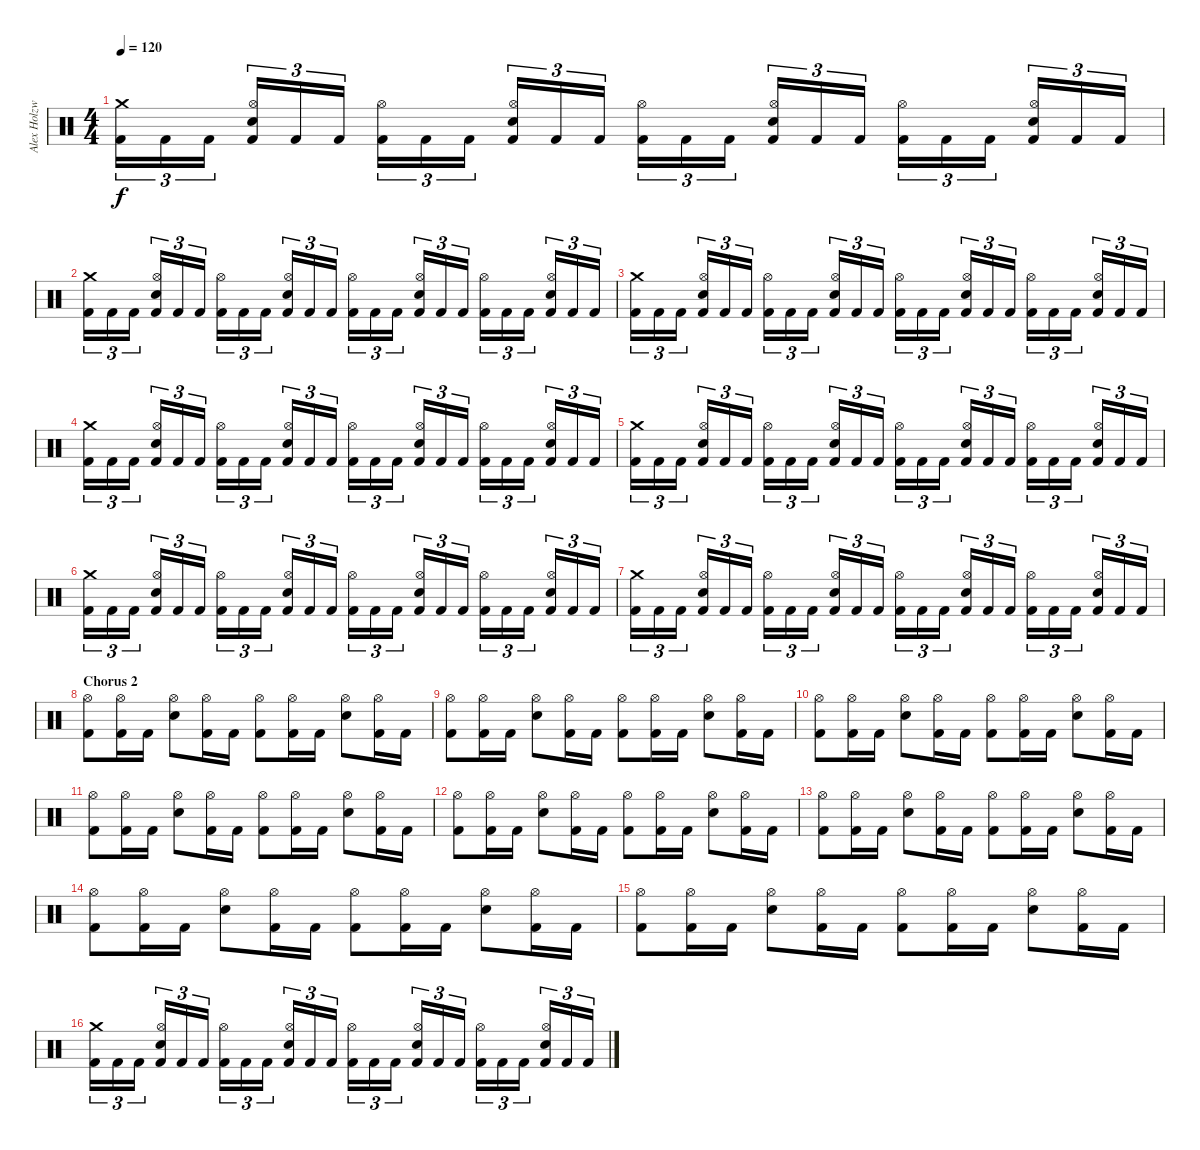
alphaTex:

\track ("Alex Holzwarth - Drums" "Alex Holzw") {instrument percussion}
\staff {score}
\articulation defaults
\ts (4 4)
\tempo 120
\clef neutral
\ks c
("Crash medium (hit)" "Kick (hit) 2").16{tu (3 2) dy f} "Kick (hit) 2".16{tu (3 2)} "Kick (hit) 2".16{tu (3 2)} ("Hi-Hat (open)" "Electric Snare (hit)" "Kick (hit) 2").16{tu (3 2)} "Kick (hit) 2".16{tu (3 2)} "Kick (hit) 2".16{tu (3 2)} ("Hi-Hat (open)" "Kick (hit) 2").16{tu (3 2)} "Kick (hit) 2".16{tu (3 2)} "Kick (hit) 2".16{tu (3 2)} ("Hi-Hat (open)" "Electric Snare (hit)" "Kick (hit) 2").16{tu (3 2)} "Kick (hit) 2".16{tu (3 2)} "Kick (hit) 2".16{tu (3 2)} ("Hi-Hat (open)" "Kick (hit) 2").16{tu (3 2)} "Kick (hit) 2".16{tu (3 2)} "Kick (hit) 2".16{tu (3 2)} ("Hi-Hat (open)" "Electric Snare (hit)" "Kick (hit) 2").16{tu (3 2)} "Kick (hit) 2".16{tu (3 2)} "Kick (hit) 2".16{tu (3 2)} ("Hi-Hat (open)" "Kick (hit) 2").16{tu (3 2)} "Kick (hit) 2".16{tu (3 2)} "Kick (hit) 2".16{tu (3 2)} ("Hi-Hat (open)" "Electric Snare (hit)" "Kick (hit) 2").16{tu (3 2)} "Kick (hit) 2".16{tu (3 2)} "Kick (hit) 2".16{tu (3 2)} |
("Crash medium (hit)" "Kick (hit) 2").16{tu (3 2)} "Kick (hit) 2".16{tu (3 2)} "Kick (hit) 2".16{tu (3 2)} ("Hi-Hat (open)" "Electric Snare (hit)" "Kick (hit) 2").16{tu (3 2)} "Kick (hit) 2".16{tu (3 2)} "Kick (hit) 2".16{tu (3 2)} ("Hi-Hat (open)" "Kick (hit) 2").16{tu (3 2)} "Kick (hit) 2".16{tu (3 2)} "Kick (hit) 2".16{tu (3 2)} ("Hi-Hat (open)" "Electric Snare (hit)" "Kick (hit) 2").16{tu (3 2)} "Kick (hit) 2".16{tu (3 2)} "Kick (hit) 2".16{tu (3 2)} ("Hi-Hat (open)" "Kick (hit) 2").16{tu (3 2)} "Kick (hit) 2".16{tu (3 2)} "Kick (hit) 2".16{tu (3 2)} ("Hi-Hat (open)" "Electric Snare (hit)" "Kick (hit) 2").16{tu (3 2)} "Kick (hit) 2".16{tu (3 2)} "Kick (hit) 2".16{tu (3 2)} ("Hi-Hat (open)" "Kick (hit) 2").16{tu (3 2)} "Kick (hit) 2".16{tu (3 2)} "Kick (hit) 2".16{tu (3 2)} ("Hi-Hat (open)" "Electric Snare (hit)" "Kick (hit) 2").16{tu (3 2)} "Kick (hit) 2".16{tu (3 2)} "Kick (hit) 2".16{tu (3 2)} |
("Crash medium (hit)" "Kick (hit) 2").16{tu (3 2)} "Kick (hit) 2".16{tu (3 2)} "Kick (hit) 2".16{tu (3 2)} ("Hi-Hat (open)" "Electric Snare (hit)" "Kick (hit) 2").16{tu (3 2)} "Kick (hit) 2".16{tu (3 2)} "Kick (hit) 2".16{tu (3 2)} ("Hi-Hat (open)" "Kick (hit) 2").16{tu (3 2)} "Kick (hit) 2".16{tu (3 2)} "Kick (hit) 2".16{tu (3 2)} ("Hi-Hat (open)" "Electric Snare (hit)" "Kick (hit) 2").16{tu (3 2)} "Kick (hit) 2".16{tu (3 2)} "Kick (hit) 2".16{tu (3 2)} ("Hi-Hat (open)" "Kick (hit) 2").16{tu (3 2)} "Kick (hit) 2".16{tu (3 2)} "Kick (hit) 2".16{tu (3 2)} ("Hi-Hat (open)" "Electric Snare (hit)" "Kick (hit) 2").16{tu (3 2)} "Kick (hit) 2".16{tu (3 2)} "Kick (hit) 2".16{tu (3 2)} ("Hi-Hat (open)" "Kick (hit) 2").16{tu (3 2)} "Kick (hit) 2".16{tu (3 2)} "Kick (hit) 2".16{tu (3 2)} ("Hi-Hat (open)" "Electric Snare (hit)" "Kick (hit) 2").16{tu (3 2)} "Kick (hit) 2".16{tu (3 2)} "Kick (hit) 2".16{tu (3 2)} |
("Crash medium (hit)" "Kick (hit) 2").16{tu (3 2)} "Kick (hit) 2".16{tu (3 2)} "Kick (hit) 2".16{tu (3 2)} ("Hi-Hat (open)" "Electric Snare (hit)" "Kick (hit) 2").16{tu (3 2)} "Kick (hit) 2".16{tu (3 2)} "Kick (hit) 2".16{tu (3 2)} ("Hi-Hat (open)" "Kick (hit) 2").16{tu (3 2)} "Kick (hit) 2".16{tu (3 2)} "Kick (hit) 2".16{tu (3 2)} ("Hi-Hat (open)" "Electric Snare (hit)" "Kick (hit) 2").16{tu (3 2)} "Kick (hit) 2".16{tu (3 2)} "Kick (hit) 2".16{tu (3 2)} ("Hi-Hat (open)" "Kick (hit) 2").16{tu (3 2)} "Kick (hit) 2".16{tu (3 2)} "Kick (hit) 2".16{tu (3 2)} ("Hi-Hat (open)" "Electric Snare (hit)" "Kick (hit) 2").16{tu (3 2)} "Kick (hit) 2".16{tu (3 2)} "Kick (hit) 2".16{tu (3 2)} ("Hi-Hat (open)" "Kick (hit) 2").16{tu (3 2)} "Kick (hit) 2".16{tu (3 2)} "Kick (hit) 2".16{tu (3 2)} ("Hi-Hat (open)" "Electric Snare (hit)" "Kick (hit) 2").16{tu (3 2)} "Kick (hit) 2".16{tu (3 2)} "Kick (hit) 2".16{tu (3 2)} |
("Crash medium (hit)" "Kick (hit) 2").16{tu (3 2)} "Kick (hit) 2".16{tu (3 2)} "Kick (hit) 2".16{tu (3 2)} ("Hi-Hat (open)" "Electric Snare (hit)" "Kick (hit) 2").16{tu (3 2)} "Kick (hit) 2".16{tu (3 2)} "Kick (hit) 2".16{tu (3 2)} ("Hi-Hat (open)" "Kick (hit) 2").16{tu (3 2)} "Kick (hit) 2".16{tu (3 2)} "Kick (hit) 2".16{tu (3 2)} ("Hi-Hat (open)" "Electric Snare (hit)" "Kick (hit) 2").16{tu (3 2)} "Kick (hit) 2".16{tu (3 2)} "Kick (hit) 2".16{tu (3 2)} ("Hi-Hat (open)" "Kick (hit) 2").16{tu (3 2)} "Kick (hit) 2".16{tu (3 2)} "Kick (hit) 2".16{tu (3 2)} ("Hi-Hat (open)" "Electric Snare (hit)" "Kick (hit) 2").16{tu (3 2)} "Kick (hit) 2".16{tu (3 2)} "Kick (hit) 2".16{tu (3 2)} ("Hi-Hat (open)" "Kick (hit) 2").16{tu (3 2)} "Kick (hit) 2".16{tu (3 2)} "Kick (hit) 2".16{tu (3 2)} ("Hi-Hat (open)" "Electric Snare (hit)" "Kick (hit) 2").16{tu (3 2)} "Kick (hit) 2".16{tu (3 2)} "Kick (hit) 2".16{tu (3 2)} |
("Crash medium (hit)" "Kick (hit) 2").16{tu (3 2)} "Kick (hit) 2".16{tu (3 2)} "Kick (hit) 2".16{tu (3 2)} ("Hi-Hat (open)" "Electric Snare (hit)" "Kick (hit) 2").16{tu (3 2)} "Kick (hit) 2".16{tu (3 2)} "Kick (hit) 2".16{tu (3 2)} ("Hi-Hat (open)" "Kick (hit) 2").16{tu (3 2)} "Kick (hit) 2".16{tu (3 2)} "Kick (hit) 2".16{tu (3 2)} ("Hi-Hat (open)" "Electric Snare (hit)" "Kick (hit) 2").16{tu (3 2)} "Kick (hit) 2".16{tu (3 2)} "Kick (hit) 2".16{tu (3 2)} ("Hi-Hat (open)" "Kick (hit) 2").16{tu (3 2)} "Kick (hit) 2".16{tu (3 2)} "Kick (hit) 2".16{tu (3 2)} ("Hi-Hat (open)" "Electric Snare (hit)" "Kick (hit) 2").16{tu (3 2)} "Kick (hit) 2".16{tu (3 2)} "Kick (hit) 2".16{tu (3 2)} ("Hi-Hat (open)" "Kick (hit) 2").16{tu (3 2)} "Kick (hit) 2".16{tu (3 2)} "Kick (hit) 2".16{tu (3 2)} ("Hi-Hat (open)" "Electric Snare (hit)" "Kick (hit) 2").16{tu (3 2)} "Kick (hit) 2".16{tu (3 2)} "Kick (hit) 2".16{tu (3 2)} |
("Crash medium (hit)" "Kick (hit) 2").16{tu (3 2)} "Kick (hit) 2".16{tu (3 2)} "Kick (hit) 2".16{tu (3 2)} ("Hi-Hat (open)" "Electric Snare (hit)" "Kick (hit) 2").16{tu (3 2)} "Kick (hit) 2".16{tu (3 2)} "Kick (hit) 2".16{tu (3 2)} ("Hi-Hat (open)" "Kick (hit) 2").16{tu (3 2)} "Kick (hit) 2".16{tu (3 2)} "Kick (hit) 2".16{tu (3 2)} ("Hi-Hat (open)" "Electric Snare (hit)" "Kick (hit) 2").16{tu (3 2)} "Kick (hit) 2".16{tu (3 2)} "Kick (hit) 2".16{tu (3 2)} ("Hi-Hat (open)" "Kick (hit) 2").16{tu (3 2)} "Kick (hit) 2".16{tu (3 2)} "Kick (hit) 2".16{tu (3 2)} ("Hi-Hat (open)" "Electric Snare (hit)" "Kick (hit) 2").16{tu (3 2)} "Kick (hit) 2".16{tu (3 2)} "Kick (hit) 2".16{tu (3 2)} ("Hi-Hat (open)" "Kick (hit) 2").16{tu (3 2)} "Kick (hit) 2".16{tu (3 2)} "Kick (hit) 2".16{tu (3 2)} ("Hi-Hat (open)" "Electric Snare (hit)" "Kick (hit) 2").16{tu (3 2)} "Kick (hit) 2".16{tu (3 2)} "Kick (hit) 2".16{tu (3 2)} |
\section ("" "Chorus 2")
("Hi-Hat (open)" "Kick (hit) 2").8 ("Hi-Hat (open)" "Kick (hit) 2").16 "Kick (hit) 2".16 ("Hi-Hat (open)" "Electric Snare (hit)").8 ("Hi-Hat (open)" "Kick (hit) 2").16 "Kick (hit) 2".16 ("Hi-Hat (open)" "Kick (hit) 2").8 ("Hi-Hat (open)" "Kick (hit) 2").16 "Kick (hit) 2".16 ("Hi-Hat (open)" "Electric Snare (hit)").8 ("Hi-Hat (open)" "Kick (hit) 2").16 "Kick (hit) 2".16 |
("Hi-Hat (open)" "Kick (hit) 2").8 ("Hi-Hat (open)" "Kick (hit) 2").16 "Kick (hit) 2".16 ("Hi-Hat (open)" "Electric Snare (hit)").8 ("Hi-Hat (open)" "Kick (hit) 2").16 "Kick (hit) 2".16 ("Hi-Hat (open)" "Kick (hit) 2").8 ("Hi-Hat (open)" "Kick (hit) 2").16 "Kick (hit) 2".16 ("Hi-Hat (open)" "Electric Snare (hit)").8 ("Hi-Hat (open)" "Kick (hit) 2").16 "Kick (hit) 2".16 |
("Hi-Hat (open)" "Kick (hit) 2").8 ("Hi-Hat (open)" "Kick (hit) 2").16 "Kick (hit) 2".16 ("Hi-Hat (open)" "Electric Snare (hit)").8 ("Hi-Hat (open)" "Kick (hit) 2").16 "Kick (hit) 2".16 ("Hi-Hat (open)" "Kick (hit) 2").8 ("Hi-Hat (open)" "Kick (hit) 2").16 "Kick (hit) 2".16 ("Hi-Hat (open)" "Electric Snare (hit)").8 ("Hi-Hat (open)" "Kick (hit) 2").16 "Kick (hit) 2".16 |
("Hi-Hat (open)" "Kick (hit) 2").8 ("Hi-Hat (open)" "Kick (hit) 2").16 "Kick (hit) 2".16 ("Hi-Hat (open)" "Electric Snare (hit)").8 ("Hi-Hat (open)" "Kick (hit) 2").16 "Kick (hit) 2".16 ("Hi-Hat (open)" "Kick (hit) 2").8 ("Hi-Hat (open)" "Kick (hit) 2").16 "Kick (hit) 2".16 ("Hi-Hat (open)" "Electric Snare (hit)").8 ("Hi-Hat (open)" "Kick (hit) 2").16 "Kick (hit) 2".16 |
("Hi-Hat (open)" "Kick (hit) 2").8 ("Hi-Hat (open)" "Kick (hit) 2").16 "Kick (hit) 2".16 ("Hi-Hat (open)" "Electric Snare (hit)").8 ("Hi-Hat (open)" "Kick (hit) 2").16 "Kick (hit) 2".16 ("Hi-Hat (open)" "Kick (hit) 2").8 ("Hi-Hat (open)" "Kick (hit) 2").16 "Kick (hit) 2".16 ("Hi-Hat (open)" "Electric Snare (hit)").8 ("Hi-Hat (open)" "Kick (hit) 2").16 "Kick (hit) 2".16 |
("Hi-Hat (open)" "Kick (hit) 2").8 ("Hi-Hat (open)" "Kick (hit) 2").16 "Kick (hit) 2".16 ("Hi-Hat (open)" "Electric Snare (hit)").8 ("Hi-Hat (open)" "Kick (hit) 2").16 "Kick (hit) 2".16 ("Hi-Hat (open)" "Kick (hit) 2").8 ("Hi-Hat (open)" "Kick (hit) 2").16 "Kick (hit) 2".16 ("Hi-Hat (open)" "Electric Snare (hit)").8 ("Hi-Hat (open)" "Kick (hit) 2").16 "Kick (hit) 2".16 |
("Hi-Hat (open)" "Kick (hit) 2").8 ("Hi-Hat (open)" "Kick (hit) 2").16 "Kick (hit) 2".16 ("Hi-Hat (open)" "Electric Snare (hit)").8 ("Hi-Hat (open)" "Kick (hit) 2").16 "Kick (hit) 2".16 ("Hi-Hat (open)" "Kick (hit) 2").8 ("Hi-Hat (open)" "Kick (hit) 2").16 "Kick (hit) 2".16 ("Hi-Hat (open)" "Electric Snare (hit)").8 ("Hi-Hat (open)" "Kick (hit) 2").16 "Kick (hit) 2".16 |
("Hi-Hat (open)" "Kick (hit) 2").8 ("Hi-Hat (open)" "Kick (hit) 2").16 "Kick (hit) 2".16 ("Hi-Hat (open)" "Electric Snare (hit)").8 ("Hi-Hat (open)" "Kick (hit) 2").16 "Kick (hit) 2".16 ("Hi-Hat (open)" "Kick (hit) 2").8 ("Hi-Hat (open)" "Kick (hit) 2").16 "Kick (hit) 2".16 ("Hi-Hat (open)" "Electric Snare (hit)").8 ("Hi-Hat (open)" "Kick (hit) 2").16 "Kick (hit) 2".16 |
("Crash medium (hit)" "Kick (hit) 2").16{tu (3 2)} "Kick (hit) 2".16{tu (3 2)} "Kick (hit) 2".16{tu (3 2)} ("Hi-Hat (open)" "Electric Snare (hit)" "Kick (hit) 2").16{tu (3 2)} "Kick (hit) 2".16{tu (3 2)} "Kick (hit) 2".16{tu (3 2)} ("Hi-Hat (open)" "Kick (hit) 2").16{tu (3 2)} "Kick (hit) 2".16{tu (3 2)} "Kick (hit) 2".16{tu (3 2)} ("Hi-Hat (open)" "Electric Snare (hit)" "Kick (hit) 2").16{tu (3 2)} "Kick (hit) 2".16{tu (3 2)} "Kick (hit) 2".16{tu (3 2)} ("Hi-Hat (open)" "Kick (hit) 2").16{tu (3 2)} "Kick (hit) 2".16{tu (3 2)} "Kick (hit) 2".16{tu (3 2)} ("Hi-Hat (open)" "Electric Snare (hit)" "Kick (hit) 2").16{tu (3 2)} "Kick (hit) 2".16{tu (3 2)} "Kick (hit) 2".16{tu (3 2)} ("Hi-Hat (open)" "Kick (hit) 2").16{tu (3 2)} "Kick (hit) 2".16{tu (3 2)} "Kick (hit) 2".16{tu (3 2)} ("Hi-Hat (open)" "Electric Snare (hit)" "Kick (hit) 2").16{tu (3 2)} "Kick (hit) 2".16{tu (3 2)} "Kick (hit) 2".16{tu (3 2)}
